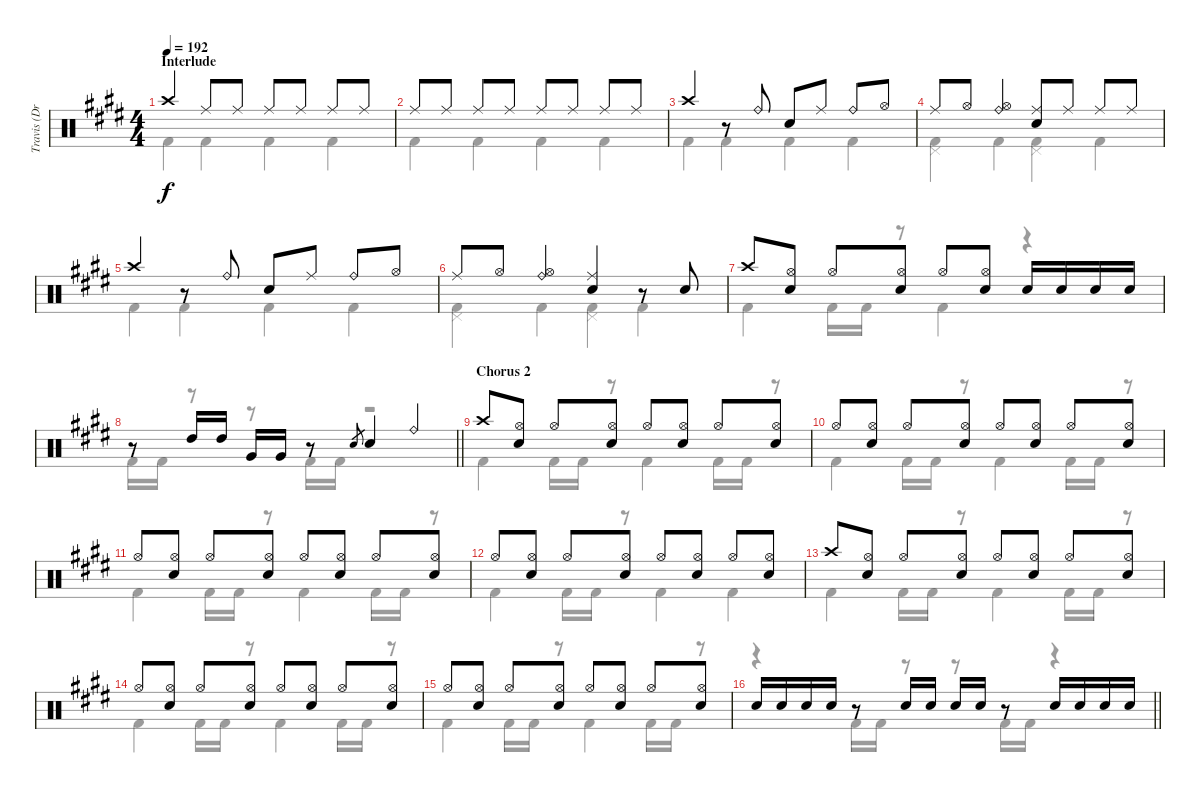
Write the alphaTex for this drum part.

\track ("Travis (Drums)" "Travis (Dr") {instrument percussion}
\staff {score}
\articulation defaults
\voice
\ts (4 4)
\section ("" "Interlude")
\tempo 192
\clef neutral
\ks e "Crash high (hit)".4{dy f} "Ride (middle)".8 "Ride (middle)".8 "Ride (middle)".8 "Ride (middle)".8 "Ride (middle)".8 "Ride (middle)".8
|
"Ride (middle)".8 "Ride (middle)".8 "Ride (middle)".8 "Ride (middle)".8 "Ride (middle)".8 "Ride (middle)".8 "Ride (middle)".8 "Ride (middle)".8 |
"Crash high (hit)".4 r.8 "Ride (bell)".8 "Electric Snare (hit)".8 "Ride (middle)".8 "Ride (bell)".8 "Hi-Hat (open)".8 |
"Ride (middle)".8 "Hi-Hat (open)".8 ("Ride (bell)" "Hi-Hat (open)").4 ("Ride (middle)" "Electric Snare (hit)").8 "Ride (middle)".8 "Ride (middle)".8 "Ride (middle)".8 |
"Crash high (hit)".4 r.8 "Ride (bell)".8 "Electric Snare (hit)".8 "Ride (middle)".8 "Ride (bell)".8 "Hi-Hat (open)".8 |
"Ride (middle)".8 "Hi-Hat (open)".8 ("Ride (bell)" "Hi-Hat (open)").4 ("Ride (middle)" "Electric Snare (hit)").4 r.8 "Electric Snare (hit)".8 |
"Crash high (hit)".8 ("Hi-Hat (open)" "Electric Snare (hit)").8 "Hi-Hat (open)".8 ("Hi-Hat (open)" "Electric Snare (hit)").8 "Hi-Hat (open)".8 ("Hi-Hat (open)" "Electric Snare (hit)").8 "Electric Snare (hit)".16 "Electric Snare (hit)".16 "Electric Snare (hit)".16 "Electric Snare (hit)".16 |
\barLineRight lightlight
r.8 "High Tom (hit)".16 "High Tom (hit)".16 "Very Low Tom (hit)".16 "Very Low Tom (hit)".16 r.8 "Electric Snare (hit)".8{gr} "Electric Snare (hit)".4 "Ride (bell)".4 |
\section ("" "Chorus 2")
"Crash high (hit)".8 ("Hi-Hat (open)" "Electric Snare (hit)").8 "Hi-Hat (open)".8 ("Hi-Hat (open)" "Electric Snare (hit)").8 "Hi-Hat (open)".8 ("Hi-Hat (open)" "Electric Snare (hit)").8 "Hi-Hat (open)".8 ("Hi-Hat (open)" "Electric Snare (hit)").8 |
"Hi-Hat (open)".8 ("Hi-Hat (open)" "Electric Snare (hit)").8 "Hi-Hat (open)".8 ("Hi-Hat (open)" "Electric Snare (hit)").8 "Hi-Hat (open)".8 ("Hi-Hat (open)" "Electric Snare (hit)").8 "Hi-Hat (open)".8 ("Hi-Hat (open)" "Electric Snare (hit)").8 |
"Hi-Hat (open)".8 ("Hi-Hat (open)" "Electric Snare (hit)").8 "Hi-Hat (open)".8 ("Hi-Hat (open)" "Electric Snare (hit)").8 "Hi-Hat (open)".8 ("Hi-Hat (open)" "Electric Snare (hit)").8 "Hi-Hat (open)".8 ("Hi-Hat (open)" "Electric Snare (hit)").8 |
"Hi-Hat (open)".8 ("Hi-Hat (open)" "Electric Snare (hit)").8 "Hi-Hat (open)".8 ("Hi-Hat (open)" "Electric Snare (hit)").8 "Hi-Hat (open)".8 ("Hi-Hat (open)" "Electric Snare (hit)").8 "Hi-Hat (open)".8 ("Hi-Hat (open)" "Electric Snare (hit)").8 |
"Crash high (hit)".8 ("Hi-Hat (open)" "Electric Snare (hit)").8 "Hi-Hat (open)".8 ("Hi-Hat (open)" "Electric Snare (hit)").8 "Hi-Hat (open)".8 ("Hi-Hat (open)" "Electric Snare (hit)").8 "Hi-Hat (open)".8 ("Hi-Hat (open)" "Electric Snare (hit)").8 |
"Hi-Hat (open)".8 ("Hi-Hat (open)" "Electric Snare (hit)").8 "Hi-Hat (open)".8 ("Hi-Hat (open)" "Electric Snare (hit)").8 "Hi-Hat (open)".8 ("Hi-Hat (open)" "Electric Snare (hit)").8 "Hi-Hat (open)".8 ("Hi-Hat (open)" "Electric Snare (hit)").8 |
"Hi-Hat (open)".8 ("Hi-Hat (open)" "Electric Snare (hit)").8 "Hi-Hat (open)".8 ("Hi-Hat (open)" "Electric Snare (hit)").8 "Hi-Hat (open)".8 ("Hi-Hat (open)" "Electric Snare (hit)").8 "Hi-Hat (open)".8 ("Hi-Hat (open)" "Electric Snare (hit)").8 |
\barLineRight lightlight "Electric Snare (hit)".16 "Electric Snare (hit)".16 "Electric Snare (hit)".16 "Electric Snare (hit)".16
r.8 "Electric Snare (hit)".16 "Electric Snare (hit)".16 "Electric Snare (hit)".16 "Electric Snare (hit)".16 r.8 "Electric Snare (hit)".16 "Electric Snare (hit)".16 "Electric Snare (hit)".16 "Electric Snare (hit)".16
\voice
\clef neutral
\ottava regular
\simile none
\ks e "Kick (hit) 2".4{dy f} "Kick (hit) 2".4 "Kick (hit) 2".4 "Kick (hit) 2".4
|
"Kick (hit) 2".4 "Kick (hit) 2".4 "Kick (hit) 2".4 "Kick (hit) 2".4 |
"Kick (hit) 2".4 "Kick (hit) 2".4 "Kick (hit) 2".4 "Kick (hit) 2".4 |
("Kick (hit) 2" "Pedal Hi-Hat (hit)").4 "Kick (hit) 2".4 ("Kick (hit) 2" "Pedal Hi-Hat (hit)").4 "Kick (hit) 2".4 |
"Kick (hit) 2".4 "Kick (hit) 2".4 "Kick (hit) 2".4 "Kick (hit) 2".4 |
("Kick (hit) 2" "Pedal Hi-Hat (hit)").4 "Kick (hit) 2".4 ("Kick (hit) 2" "Pedal Hi-Hat (hit)").4 "Kick (hit) 2".4 |
"Kick (hit) 2".4 "Kick (hit) 2".16 "Kick (hit) 2".16 r.8 "Kick (hit) 2".4 r.4 |
\barLineRight lightlight "Kick (hit) 2".16 "Kick (hit) 2".16
r.8 r.8 "Kick (hit) 2".16 "Kick (hit) 2".16 r.2 |
"Kick (hit) 2".4 "Kick (hit) 2".16 "Kick (hit) 2".16 r.8 "Kick (hit) 2".4 "Kick (hit) 2".16 "Kick (hit) 2".16 r.8 |
"Kick (hit) 2".4 "Kick (hit) 2".16 "Kick (hit) 2".16 r.8 "Kick (hit) 2".4 "Kick (hit) 2".16 "Kick (hit) 2".16 r.8 |
"Kick (hit) 2".4 "Kick (hit) 2".16 "Kick (hit) 2".16 r.8 "Kick (hit) 2".4 "Kick (hit) 2".16 "Kick (hit) 2".16 r.8 |
"Kick (hit) 2".4 "Kick (hit) 2".16 "Kick (hit) 2".16 r.8 "Kick (hit) 2".4 "Kick (hit) 2".4 |
"Kick (hit) 2".4 "Kick (hit) 2".16 "Kick (hit) 2".16 r.8 "Kick (hit) 2".4 "Kick (hit) 2".16 "Kick (hit) 2".16 r.8 |
"Kick (hit) 2".4 "Kick (hit) 2".16 "Kick (hit) 2".16 r.8 "Kick (hit) 2".4 "Kick (hit) 2".16 "Kick (hit) 2".16 r.8 |
"Kick (hit) 2".4 "Kick (hit) 2".16 "Kick (hit) 2".16 r.8 "Kick (hit) 2".4 "Kick (hit) 2".16 "Kick (hit) 2".16 r.8 |
\barLineRight lightlight
r.4 "Kick (hit) 2".16 "Kick (hit) 2".16 r.8 r.8 "Kick (hit) 2".16 "Kick (hit) 2".16 r.4
